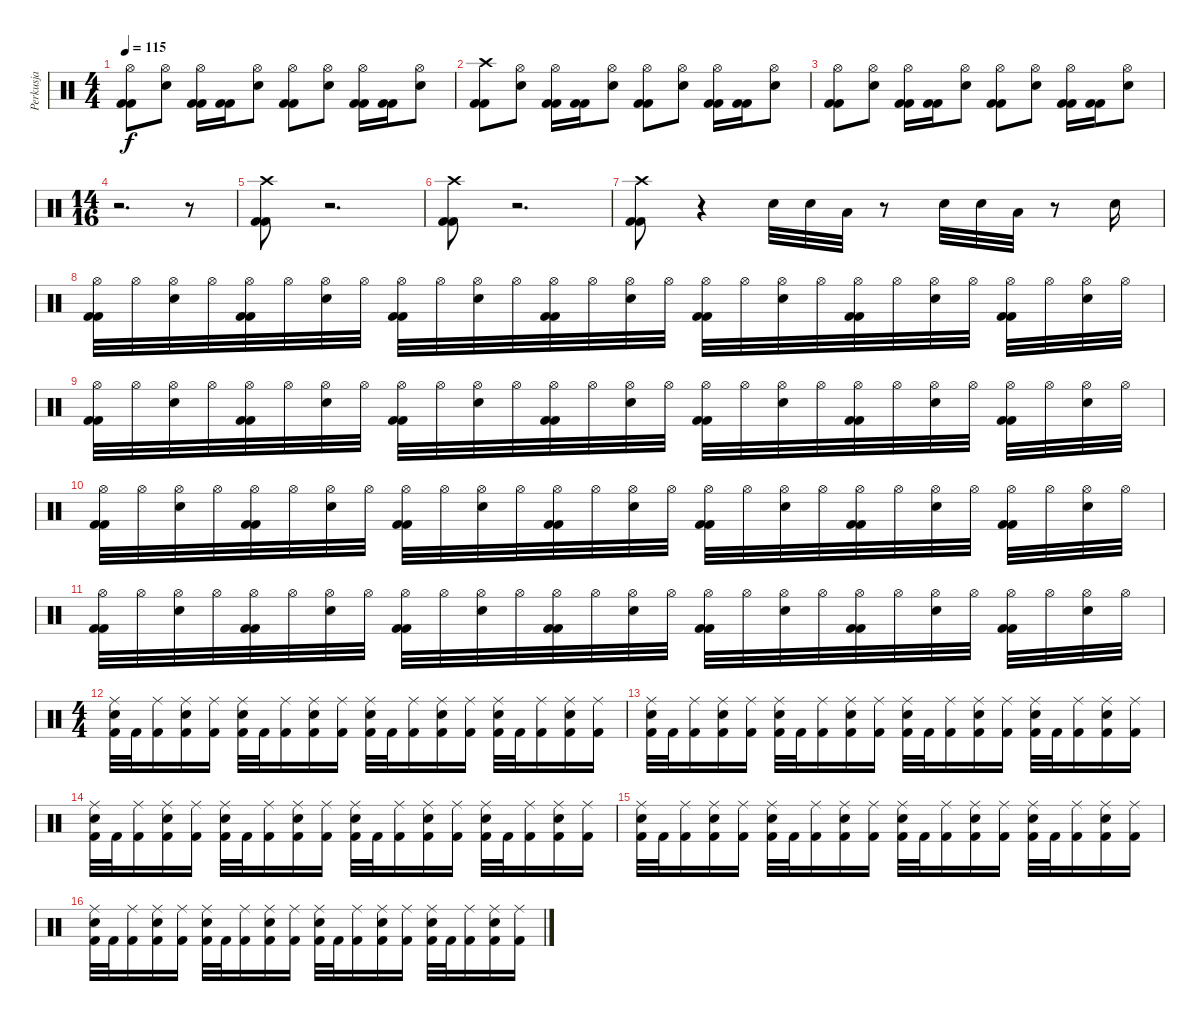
\track ("Perkusja" "Perkusja") {instrument percussion}
\staff {score}
\articulation defaults
\ts (4 4)
\tempo 115
\clef neutral
\ks c
("Hi-Hat (open)" "Kick (hit) 2" "Kick (hit) 2").8{dy f} ("Hi-Hat (open)" "Electric Snare (hit)").8 ("Hi-Hat (open)" "Kick (hit) 2" "Kick (hit) 2").16 ("Kick (hit) 2" "Kick (hit) 2").16 ("Hi-Hat (open)" "Electric Snare (hit)").8 ("Hi-Hat (open)" "Kick (hit) 2" "Kick (hit) 2").8 ("Hi-Hat (open)" "Electric Snare (hit)").8 ("Hi-Hat (open)" "Kick (hit) 2" "Kick (hit) 2").16 ("Kick (hit) 2" "Kick (hit) 2").16 ("Hi-Hat (open)" "Electric Snare (hit)").8 |
("Crash high (hit)" "Kick (hit) 2" "Kick (hit) 2").8 ("Hi-Hat (open)" "Electric Snare (hit)").8 ("Hi-Hat (open)" "Kick (hit) 2" "Kick (hit) 2").16 ("Kick (hit) 2" "Kick (hit) 2").16 ("Hi-Hat (open)" "Electric Snare (hit)").8 ("Hi-Hat (open)" "Kick (hit) 2" "Kick (hit) 2").8 ("Hi-Hat (open)" "Electric Snare (hit)").8 ("Hi-Hat (open)" "Kick (hit) 2" "Kick (hit) 2").16 ("Kick (hit) 2" "Kick (hit) 2").16 ("Hi-Hat (open)" "Electric Snare (hit)").8 |
("Hi-Hat (open)" "Kick (hit) 2" "Kick (hit) 2").8 ("Hi-Hat (open)" "Electric Snare (hit)").8 ("Hi-Hat (open)" "Kick (hit) 2" "Kick (hit) 2").16 ("Kick (hit) 2" "Kick (hit) 2").16 ("Hi-Hat (open)" "Electric Snare (hit)").8 ("Hi-Hat (open)" "Kick (hit) 2" "Kick (hit) 2").8 ("Hi-Hat (open)" "Electric Snare (hit)").8 ("Hi-Hat (open)" "Kick (hit) 2" "Kick (hit) 2").16 ("Kick (hit) 2" "Kick (hit) 2").16 ("Hi-Hat (open)" "Electric Snare (hit)").8 |
\ts (14 16)
r.2{d} r.8 |
("Crash high (hit)" "Kick (hit) 2" "Kick (hit) 2").8 r.2{d} |
("Crash high (hit)" "Kick (hit) 2" "Kick (hit) 2").8 r.2{d} |
("Crash high (hit)" "Kick (hit) 2" "Kick (hit) 2").8 r.4 "Electric Snare (hit)".32 "Electric Snare (hit)".32 "Low Floor Tom (hit)".32 r.8 "Electric Snare (hit)".32 "Electric Snare (hit)".32 "Low Floor Tom (hit)".32 r.8 "Electric Snare (hit)".16 |
("Hi-Hat (open)" "Kick (hit) 2" "Kick (hit) 2").32 "Hi-Hat (open)".32 ("Hi-Hat (open)" "Electric Snare (hit)").32 "Hi-Hat (open)".32 ("Hi-Hat (open)" "Kick (hit) 2" "Kick (hit) 2").32 "Hi-Hat (open)".32 ("Hi-Hat (open)" "Electric Snare (hit)").32 "Hi-Hat (open)".32 ("Hi-Hat (open)" "Kick (hit) 2" "Kick (hit) 2").32 "Hi-Hat (open)".32 ("Hi-Hat (open)" "Electric Snare (hit)").32 "Hi-Hat (open)".32 ("Hi-Hat (open)" "Kick (hit) 2" "Kick (hit) 2").32 "Hi-Hat (open)".32 ("Hi-Hat (open)" "Electric Snare (hit)").32 "Hi-Hat (open)".32 ("Hi-Hat (open)" "Kick (hit) 2" "Kick (hit) 2").32 "Hi-Hat (open)".32 ("Hi-Hat (open)" "Electric Snare (hit)").32 "Hi-Hat (open)".32 ("Hi-Hat (open)" "Kick (hit) 2" "Kick (hit) 2").32 "Hi-Hat (open)".32 ("Hi-Hat (open)" "Electric Snare (hit)").32 "Hi-Hat (open)".32 ("Hi-Hat (open)" "Kick (hit) 2" "Kick (hit) 2").32 "Hi-Hat (open)".32 ("Hi-Hat (open)" "Electric Snare (hit)").32 "Hi-Hat (open)".32 |
("Hi-Hat (open)" "Kick (hit) 2" "Kick (hit) 2").32 "Hi-Hat (open)".32 ("Hi-Hat (open)" "Electric Snare (hit)").32 "Hi-Hat (open)".32 ("Hi-Hat (open)" "Kick (hit) 2" "Kick (hit) 2").32 "Hi-Hat (open)".32 ("Hi-Hat (open)" "Electric Snare (hit)").32 "Hi-Hat (open)".32 ("Hi-Hat (open)" "Kick (hit) 2" "Kick (hit) 2").32 "Hi-Hat (open)".32 ("Hi-Hat (open)" "Electric Snare (hit)").32 "Hi-Hat (open)".32 ("Hi-Hat (open)" "Kick (hit) 2" "Kick (hit) 2").32 "Hi-Hat (open)".32 ("Hi-Hat (open)" "Electric Snare (hit)").32 "Hi-Hat (open)".32 ("Hi-Hat (open)" "Kick (hit) 2" "Kick (hit) 2").32 "Hi-Hat (open)".32 ("Hi-Hat (open)" "Electric Snare (hit)").32 "Hi-Hat (open)".32 ("Hi-Hat (open)" "Kick (hit) 2" "Kick (hit) 2").32 "Hi-Hat (open)".32 ("Hi-Hat (open)" "Electric Snare (hit)").32 "Hi-Hat (open)".32 ("Hi-Hat (open)" "Kick (hit) 2" "Kick (hit) 2").32 "Hi-Hat (open)".32 ("Hi-Hat (open)" "Electric Snare (hit)").32 "Hi-Hat (open)".32 |
("Hi-Hat (open)" "Kick (hit) 2" "Kick (hit) 2").32 "Hi-Hat (open)".32 ("Hi-Hat (open)" "Electric Snare (hit)").32 "Hi-Hat (open)".32 ("Hi-Hat (open)" "Kick (hit) 2" "Kick (hit) 2").32 "Hi-Hat (open)".32 ("Hi-Hat (open)" "Electric Snare (hit)").32 "Hi-Hat (open)".32 ("Hi-Hat (open)" "Kick (hit) 2" "Kick (hit) 2").32 "Hi-Hat (open)".32 ("Hi-Hat (open)" "Electric Snare (hit)").32 "Hi-Hat (open)".32 ("Hi-Hat (open)" "Kick (hit) 2" "Kick (hit) 2").32 "Hi-Hat (open)".32 ("Hi-Hat (open)" "Electric Snare (hit)").32 "Hi-Hat (open)".32 ("Hi-Hat (open)" "Kick (hit) 2" "Kick (hit) 2").32 "Hi-Hat (open)".32 ("Hi-Hat (open)" "Electric Snare (hit)").32 "Hi-Hat (open)".32 ("Hi-Hat (open)" "Kick (hit) 2" "Kick (hit) 2").32 "Hi-Hat (open)".32 ("Hi-Hat (open)" "Electric Snare (hit)").32 "Hi-Hat (open)".32 ("Hi-Hat (open)" "Kick (hit) 2" "Kick (hit) 2").32 "Hi-Hat (open)".32 ("Hi-Hat (open)" "Electric Snare (hit)").32 "Hi-Hat (open)".32 |
("Hi-Hat (open)" "Kick (hit) 2" "Kick (hit) 2").32 "Hi-Hat (open)".32 ("Hi-Hat (open)" "Electric Snare (hit)").32 "Hi-Hat (open)".32 ("Hi-Hat (open)" "Kick (hit) 2" "Kick (hit) 2").32 "Hi-Hat (open)".32 ("Hi-Hat (open)" "Electric Snare (hit)").32 "Hi-Hat (open)".32 ("Hi-Hat (open)" "Kick (hit) 2" "Kick (hit) 2").32 "Hi-Hat (open)".32 ("Hi-Hat (open)" "Electric Snare (hit)").32 "Hi-Hat (open)".32 ("Hi-Hat (open)" "Kick (hit) 2" "Kick (hit) 2").32 "Hi-Hat (open)".32 ("Hi-Hat (open)" "Electric Snare (hit)").32 "Hi-Hat (open)".32 ("Hi-Hat (open)" "Kick (hit) 2" "Kick (hit) 2").32 "Hi-Hat (open)".32 ("Hi-Hat (open)" "Electric Snare (hit)").32 "Hi-Hat (open)".32 ("Hi-Hat (open)" "Kick (hit) 2" "Kick (hit) 2").32 "Hi-Hat (open)".32 ("Hi-Hat (open)" "Electric Snare (hit)").32 "Hi-Hat (open)".32 ("Hi-Hat (open)" "Kick (hit) 2" "Kick (hit) 2").32 "Hi-Hat (open)".32 ("Hi-Hat (open)" "Electric Snare (hit)").32 "Hi-Hat (open)".32 |
\ts (4 4)
("Ride (middle)" "Electric Snare (hit)" "Kick (hit) 2").32 "Kick (hit) 2".32 ("Ride (middle)" "Kick (hit) 2").16 ("Ride (middle)" "Electric Snare (hit)" "Kick (hit) 2").16 ("Ride (middle)" "Kick (hit) 2").16 ("Ride (middle)" "Electric Snare (hit)" "Kick (hit) 2").32 "Kick (hit) 2".32 ("Ride (middle)" "Kick (hit) 2").16 ("Ride (middle)" "Electric Snare (hit)" "Kick (hit) 2").16 ("Ride (middle)" "Kick (hit) 2").16 ("Ride (middle)" "Electric Snare (hit)" "Kick (hit) 2").32 "Kick (hit) 2".32 ("Ride (middle)" "Kick (hit) 2").16 ("Ride (middle)" "Electric Snare (hit)" "Kick (hit) 2").16 ("Ride (middle)" "Kick (hit) 2").16 ("Ride (middle)" "Electric Snare (hit)" "Kick (hit) 2").32 "Kick (hit) 2".32 ("Ride (middle)" "Kick (hit) 2").16 ("Ride (middle)" "Electric Snare (hit)" "Kick (hit) 2").16 ("Ride (middle)" "Kick (hit) 2").16 |
("Ride (middle)" "Electric Snare (hit)" "Kick (hit) 2").32 "Kick (hit) 2".32 ("Ride (middle)" "Kick (hit) 2").16 ("Ride (middle)" "Electric Snare (hit)" "Kick (hit) 2").16 ("Ride (middle)" "Kick (hit) 2").16 ("Ride (middle)" "Electric Snare (hit)" "Kick (hit) 2").32 "Kick (hit) 2".32 ("Ride (middle)" "Kick (hit) 2").16 ("Ride (middle)" "Electric Snare (hit)" "Kick (hit) 2").16 ("Ride (middle)" "Kick (hit) 2").16 ("Ride (middle)" "Electric Snare (hit)" "Kick (hit) 2").32 "Kick (hit) 2".32 ("Ride (middle)" "Kick (hit) 2").16 ("Ride (middle)" "Electric Snare (hit)" "Kick (hit) 2").16 ("Ride (middle)" "Kick (hit) 2").16 ("Ride (middle)" "Electric Snare (hit)" "Kick (hit) 2").32 "Kick (hit) 2".32 ("Ride (middle)" "Kick (hit) 2").16 ("Ride (middle)" "Electric Snare (hit)" "Kick (hit) 2").16 ("Ride (middle)" "Kick (hit) 2").16 |
("Ride (middle)" "Electric Snare (hit)" "Kick (hit) 2").32 "Kick (hit) 2".32 ("Ride (middle)" "Kick (hit) 2").16 ("Ride (middle)" "Electric Snare (hit)" "Kick (hit) 2").16 ("Ride (middle)" "Kick (hit) 2").16 ("Ride (middle)" "Electric Snare (hit)" "Kick (hit) 2").32 "Kick (hit) 2".32 ("Ride (middle)" "Kick (hit) 2").16 ("Ride (middle)" "Electric Snare (hit)" "Kick (hit) 2").16 ("Ride (middle)" "Kick (hit) 2").16 ("Ride (middle)" "Electric Snare (hit)" "Kick (hit) 2").32 "Kick (hit) 2".32 ("Ride (middle)" "Kick (hit) 2").16 ("Ride (middle)" "Electric Snare (hit)" "Kick (hit) 2").16 ("Ride (middle)" "Kick (hit) 2").16 ("Ride (middle)" "Electric Snare (hit)" "Kick (hit) 2").32 "Kick (hit) 2".32 ("Ride (middle)" "Kick (hit) 2").16 ("Ride (middle)" "Electric Snare (hit)" "Kick (hit) 2").16 ("Ride (middle)" "Kick (hit) 2").16 |
("Ride (middle)" "Electric Snare (hit)" "Kick (hit) 2").32 "Kick (hit) 2".32 ("Ride (middle)" "Kick (hit) 2").16 ("Ride (middle)" "Electric Snare (hit)" "Kick (hit) 2").16 ("Ride (middle)" "Kick (hit) 2").16 ("Ride (middle)" "Electric Snare (hit)" "Kick (hit) 2").32 "Kick (hit) 2".32 ("Ride (middle)" "Kick (hit) 2").16 ("Ride (middle)" "Electric Snare (hit)" "Kick (hit) 2").16 ("Ride (middle)" "Kick (hit) 2").16 ("Ride (middle)" "Electric Snare (hit)" "Kick (hit) 2").32 "Kick (hit) 2".32 ("Ride (middle)" "Kick (hit) 2").16 ("Ride (middle)" "Electric Snare (hit)" "Kick (hit) 2").16 ("Ride (middle)" "Kick (hit) 2").16 ("Ride (middle)" "Electric Snare (hit)" "Kick (hit) 2").32 "Kick (hit) 2".32 ("Ride (middle)" "Kick (hit) 2").16 ("Ride (middle)" "Electric Snare (hit)" "Kick (hit) 2").16 ("Ride (middle)" "Kick (hit) 2").16 |
("Ride (middle)" "Electric Snare (hit)" "Kick (hit) 2").32 "Kick (hit) 2".32 ("Ride (middle)" "Kick (hit) 2").16 ("Ride (middle)" "Electric Snare (hit)" "Kick (hit) 2").16 ("Ride (middle)" "Kick (hit) 2").16 ("Ride (middle)" "Electric Snare (hit)" "Kick (hit) 2").32 "Kick (hit) 2".32 ("Ride (middle)" "Kick (hit) 2").16 ("Ride (middle)" "Electric Snare (hit)" "Kick (hit) 2").16 ("Ride (middle)" "Kick (hit) 2").16 ("Ride (middle)" "Electric Snare (hit)" "Kick (hit) 2").32 "Kick (hit) 2".32 ("Ride (middle)" "Kick (hit) 2").16 ("Ride (middle)" "Electric Snare (hit)" "Kick (hit) 2").16 ("Ride (middle)" "Kick (hit) 2").16 ("Ride (middle)" "Electric Snare (hit)" "Kick (hit) 2").32 "Kick (hit) 2".32 ("Ride (middle)" "Kick (hit) 2").16 ("Ride (middle)" "Electric Snare (hit)" "Kick (hit) 2").16 ("Ride (middle)" "Kick (hit) 2").16
